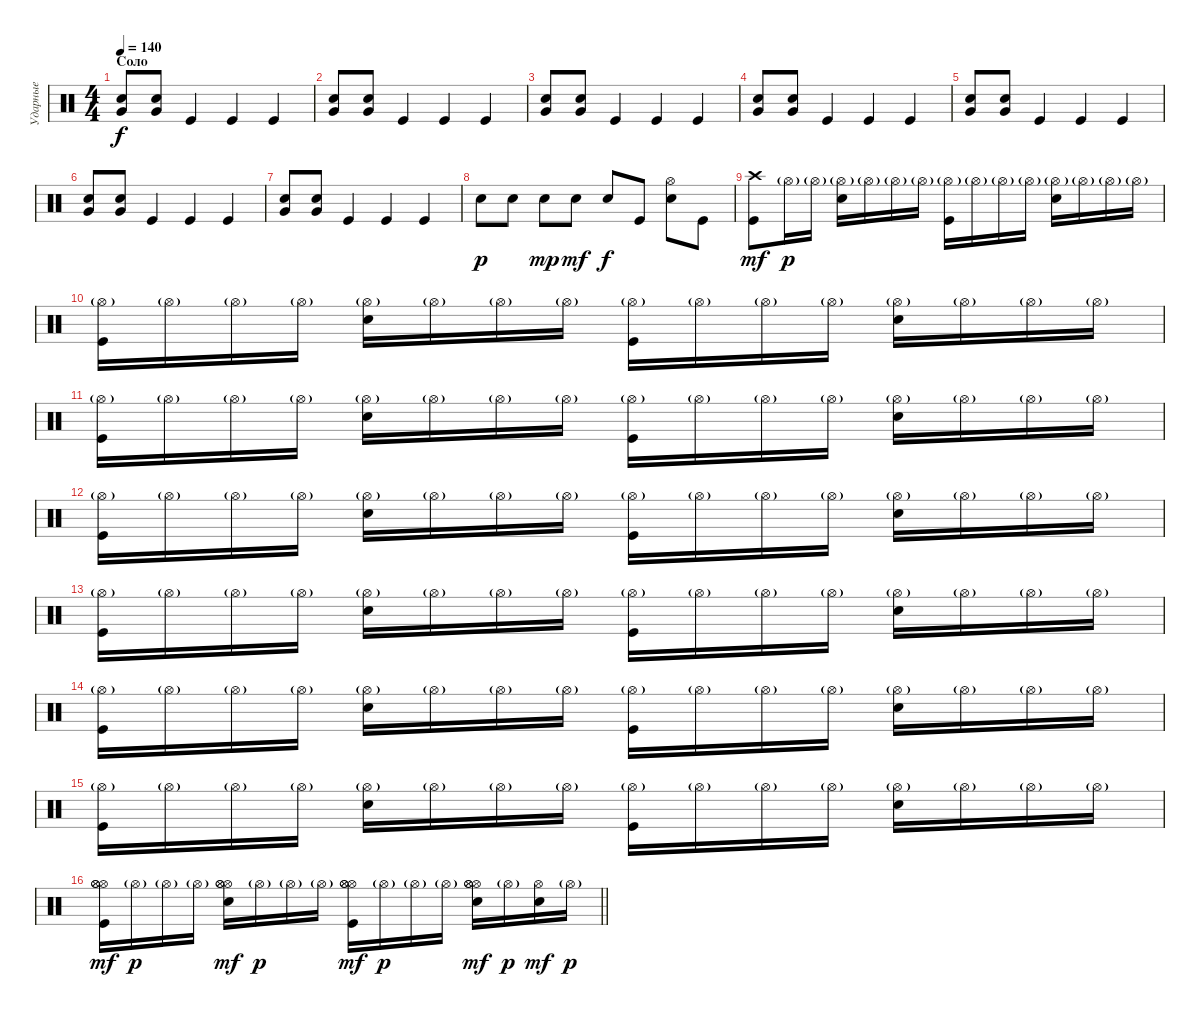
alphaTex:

\track ("Ударные" "Ударные") {instrument percussion}
\staff {score}
\articulation defaults
\ts (4 4)
\section ("" "Соло")
\tempo 140
\clef neutral
\ks c
("Snare (hit) 2" "Very Low Tom (hit)").8{dy f} ("Snare (hit) 2" "Very Low Tom (hit)").8 "Kick (hit)".4 "Kick (hit)".4 "Kick (hit)".4 |
("Snare (hit) 2" "Very Low Tom (hit)").8 ("Snare (hit) 2" "Very Low Tom (hit)").8 "Kick (hit)".4 "Kick (hit)".4 "Kick (hit)".4 |
("Snare (hit) 2" "Very Low Tom (hit)").8 ("Snare (hit) 2" "Very Low Tom (hit)").8 "Kick (hit)".4 "Kick (hit)".4 "Kick (hit)".4 |
("Snare (hit) 2" "Very Low Tom (hit)").8 ("Snare (hit) 2" "Very Low Tom (hit)").8 "Kick (hit)".4 "Kick (hit)".4 "Kick (hit)".4 |
("Snare (hit) 2" "Very Low Tom (hit)").8 ("Snare (hit) 2" "Very Low Tom (hit)").8 "Kick (hit)".4 "Kick (hit)".4 "Kick (hit)".4 |
("Snare (hit) 2" "Very Low Tom (hit)").8 ("Snare (hit) 2" "Very Low Tom (hit)").8 "Kick (hit)".4 "Kick (hit)".4 "Kick (hit)".4 |
("Snare (hit) 2" "Very Low Tom (hit)").8 ("Snare (hit) 2" "Very Low Tom (hit)").8 "Kick (hit)".4 "Kick (hit)".4 "Kick (hit)".4 |
"Snare (hit) 2".8{dy p} "Snare (hit) 2".8 "Snare (hit) 2".8{dy mp} "Snare (hit) 2".8{dy mf} "Snare (hit) 2".8{dy f} "Kick (hit)".8 ("Snare (hit) 2" "Hi-Hat (open)").8 "Kick (hit)".8 |
("Kick (hit)" "Crash high (hit)").8{dy mf} "Hi-Hat (open)"{g}.16{dy p} "Hi-Hat (open)"{g}.16 ("Snare (hit) 2" "Hi-Hat (open)"{g}).16 "Hi-Hat (open)"{g}.16 "Hi-Hat (open)"{g}.16 "Hi-Hat (open)"{g}.16 ("Kick (hit)" "Hi-Hat (open)"{g}).16 "Hi-Hat (open)"{g}.16 "Hi-Hat (open)"{g}.16 "Hi-Hat (open)"{g}.16 ("Snare (hit) 2" "Hi-Hat (open)"{g}).16 "Hi-Hat (open)"{g}.16 "Hi-Hat (open)"{g}.16 "Hi-Hat (open)"{g}.16 |
("Kick (hit)" "Hi-Hat (open)"{g}).16 "Hi-Hat (open)"{g}.16 "Hi-Hat (open)"{g}.16 "Hi-Hat (open)"{g}.16 ("Snare (hit) 2" "Hi-Hat (open)"{g}).16 "Hi-Hat (open)"{g}.16 "Hi-Hat (open)"{g}.16 "Hi-Hat (open)"{g}.16 ("Kick (hit)" "Hi-Hat (open)"{g}).16 "Hi-Hat (open)"{g}.16 "Hi-Hat (open)"{g}.16 "Hi-Hat (open)"{g}.16 ("Snare (hit) 2" "Hi-Hat (open)"{g}).16 "Hi-Hat (open)"{g}.16 "Hi-Hat (open)"{g}.16 "Hi-Hat (open)"{g}.16 |
("Kick (hit)" "Hi-Hat (open)"{g}).16 "Hi-Hat (open)"{g}.16 "Hi-Hat (open)"{g}.16 "Hi-Hat (open)"{g}.16 ("Snare (hit) 2" "Hi-Hat (open)"{g}).16 "Hi-Hat (open)"{g}.16 "Hi-Hat (open)"{g}.16 "Hi-Hat (open)"{g}.16 ("Kick (hit)" "Hi-Hat (open)"{g}).16 "Hi-Hat (open)"{g}.16 "Hi-Hat (open)"{g}.16 "Hi-Hat (open)"{g}.16 ("Snare (hit) 2" "Hi-Hat (open)"{g}).16 "Hi-Hat (open)"{g}.16 "Hi-Hat (open)"{g}.16 "Hi-Hat (open)"{g}.16 |
("Kick (hit)" "Hi-Hat (open)"{g}).16 "Hi-Hat (open)"{g}.16 "Hi-Hat (open)"{g}.16 "Hi-Hat (open)"{g}.16 ("Snare (hit) 2" "Hi-Hat (open)"{g}).16 "Hi-Hat (open)"{g}.16 "Hi-Hat (open)"{g}.16 "Hi-Hat (open)"{g}.16 ("Kick (hit)" "Hi-Hat (open)"{g}).16 "Hi-Hat (open)"{g}.16 "Hi-Hat (open)"{g}.16 "Hi-Hat (open)"{g}.16 ("Snare (hit) 2" "Hi-Hat (open)"{g}).16 "Hi-Hat (open)"{g}.16 "Hi-Hat (open)"{g}.16 "Hi-Hat (open)"{g}.16 |
("Kick (hit)" "Hi-Hat (open)"{g}).16 "Hi-Hat (open)"{g}.16 "Hi-Hat (open)"{g}.16 "Hi-Hat (open)"{g}.16 ("Snare (hit) 2" "Hi-Hat (open)"{g}).16 "Hi-Hat (open)"{g}.16 "Hi-Hat (open)"{g}.16 "Hi-Hat (open)"{g}.16 ("Kick (hit)" "Hi-Hat (open)"{g}).16 "Hi-Hat (open)"{g}.16 "Hi-Hat (open)"{g}.16 "Hi-Hat (open)"{g}.16 ("Snare (hit) 2" "Hi-Hat (open)"{g}).16 "Hi-Hat (open)"{g}.16 "Hi-Hat (open)"{g}.16 "Hi-Hat (open)"{g}.16 |
("Kick (hit)" "Hi-Hat (open)"{g}).16 "Hi-Hat (open)"{g}.16 "Hi-Hat (open)"{g}.16 "Hi-Hat (open)"{g}.16 ("Snare (hit) 2" "Hi-Hat (open)"{g}).16 "Hi-Hat (open)"{g}.16 "Hi-Hat (open)"{g}.16 "Hi-Hat (open)"{g}.16 ("Kick (hit)" "Hi-Hat (open)"{g}).16 "Hi-Hat (open)"{g}.16 "Hi-Hat (open)"{g}.16 "Hi-Hat (open)"{g}.16 ("Snare (hit) 2" "Hi-Hat (open)"{g}).16 "Hi-Hat (open)"{g}.16 "Hi-Hat (open)"{g}.16 "Hi-Hat (open)"{g}.16 |
("Kick (hit)" "Hi-Hat (open)"{g}).16 "Hi-Hat (open)"{g}.16 "Hi-Hat (open)"{g}.16 "Hi-Hat (open)"{g}.16 ("Snare (hit) 2" "Hi-Hat (open)"{g}).16 "Hi-Hat (open)"{g}.16 "Hi-Hat (open)"{g}.16 "Hi-Hat (open)"{g}.16 ("Kick (hit)" "Hi-Hat (open)"{g}).16 "Hi-Hat (open)"{g}.16 "Hi-Hat (open)"{g}.16 "Hi-Hat (open)"{g}.16 ("Snare (hit) 2" "Hi-Hat (open)"{g}).16 "Hi-Hat (open)"{g}.16 "Hi-Hat (open)"{g}.16 "Hi-Hat (open)"{g}.16 |
\barLineRight lightlight
("Kick (hit)" "Hi-Hat (open)" "Hi-Hat (open)" "Hi-Hat (open)").16{dy mf} "Hi-Hat (open)"{g}.16{dy p} "Hi-Hat (open)"{g}.16 "Hi-Hat (open)"{g}.16 ("Snare (hit) 2" "Hi-Hat (open)" "Hi-Hat (open)" "Hi-Hat (open)").16{dy mf} "Hi-Hat (open)"{g}.16{dy p} "Hi-Hat (open)"{g}.16 "Hi-Hat (open)"{g}.16 ("Kick (hit)" "Hi-Hat (open)" "Hi-Hat (open)" "Hi-Hat (open)").16{dy mf} "Hi-Hat (open)"{g}.16{dy p} "Hi-Hat (open)"{g}.16 "Hi-Hat (open)"{g}.16 ("Snare (hit) 2" "Hi-Hat (open)" "Hi-Hat (open)" "Hi-Hat (open)").16{dy mf} "Hi-Hat (open)"{g}.16{dy p} ("Snare (hit) 2" "Hi-Hat (open)").16{dy mf} "Hi-Hat (open)"{g}.16{dy p}
